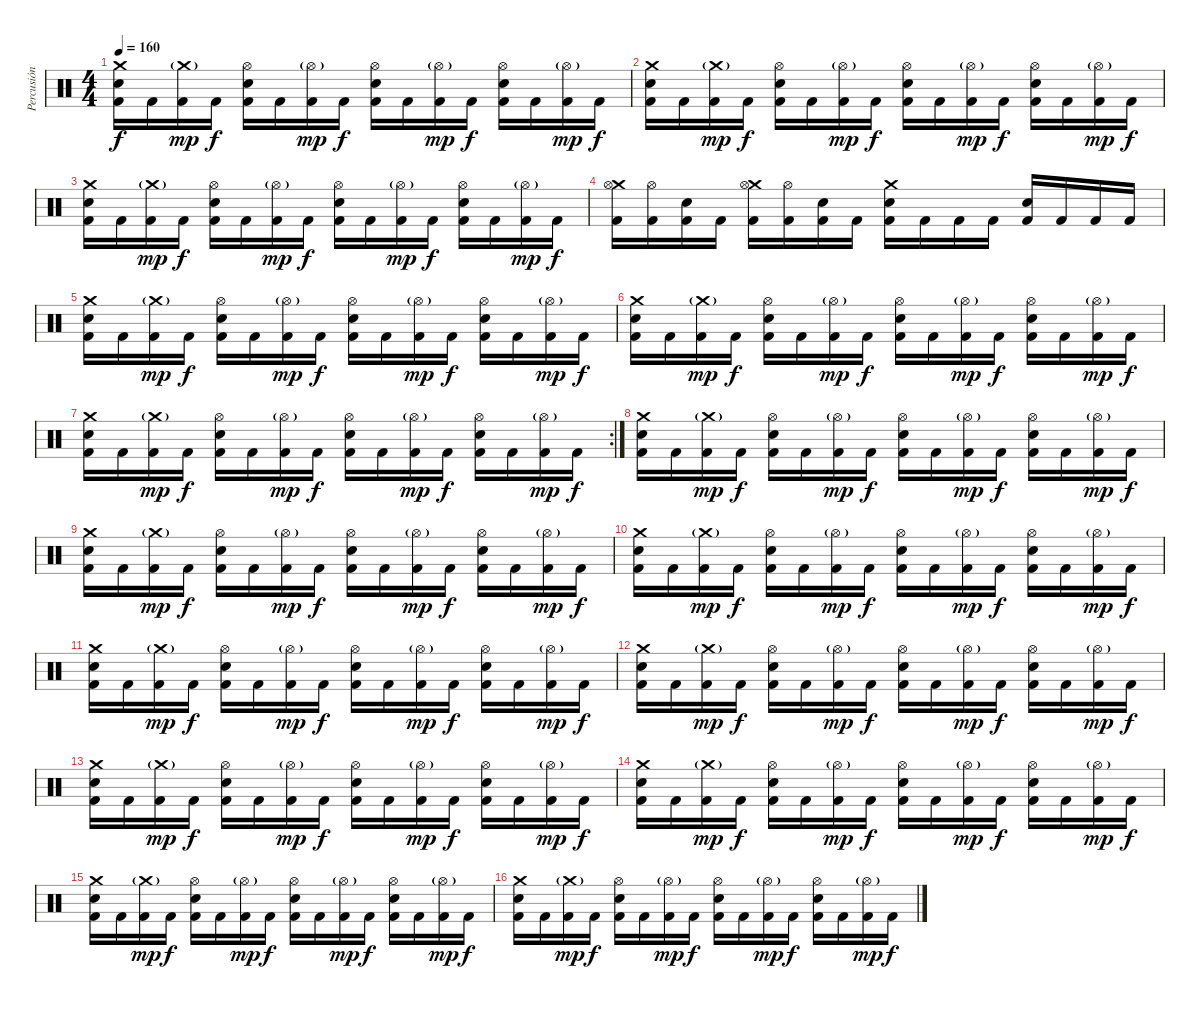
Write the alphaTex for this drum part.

\track ("Percusión" "Percusión") {instrument percussion}
\staff {score}
\articulation defaults
\ts (4 4)
\tempo 160
\clef neutral
\ks c
("Crash medium (hit)" "Electric Snare (hit)" "Kick (hit) 2").16{dy f} "Kick (hit) 2".16 ("Crash medium (hit)"{g} "Kick (hit) 2").16{dy mp} "Kick (hit) 2".16{dy f} ("Hi-Hat (open)" "Electric Snare (hit)" "Kick (hit) 2").16 "Kick (hit) 2".16 ("Hi-Hat (open)"{g} "Kick (hit) 2").16{dy mp} "Kick (hit) 2".16{dy f} ("Hi-Hat (open)" "Electric Snare (hit)" "Kick (hit) 2").16 "Kick (hit) 2".16 ("Hi-Hat (open)"{g} "Kick (hit) 2").16{dy mp} "Kick (hit) 2".16{dy f} ("Hi-Hat (open)" "Electric Snare (hit)" "Kick (hit) 2").16 "Kick (hit) 2".16 ("Hi-Hat (open)"{g} "Kick (hit) 2").16{dy mp} "Kick (hit) 2".16{dy f} |
("Crash medium (hit)" "Electric Snare (hit)" "Kick (hit) 2").16 "Kick (hit) 2".16 ("Crash medium (hit)"{g} "Kick (hit) 2").16{dy mp} "Kick (hit) 2".16{dy f} ("Hi-Hat (open)" "Electric Snare (hit)" "Kick (hit) 2").16 "Kick (hit) 2".16 ("Hi-Hat (open)"{g} "Kick (hit) 2").16{dy mp} "Kick (hit) 2".16{dy f} ("Hi-Hat (open)" "Electric Snare (hit)" "Kick (hit) 2").16 "Kick (hit) 2".16 ("Hi-Hat (open)"{g} "Kick (hit) 2").16{dy mp} "Kick (hit) 2".16{dy f} ("Hi-Hat (open)" "Electric Snare (hit)" "Kick (hit) 2").16 "Kick (hit) 2".16 ("Hi-Hat (open)"{g} "Kick (hit) 2").16{dy mp} "Kick (hit) 2".16{dy f} |
("Crash medium (hit)" "Electric Snare (hit)" "Kick (hit) 2").16 "Kick (hit) 2".16 ("Crash medium (hit)"{g} "Kick (hit) 2").16{dy mp} "Kick (hit) 2".16{dy f} ("Hi-Hat (open)" "Electric Snare (hit)" "Kick (hit) 2").16 "Kick (hit) 2".16 ("Hi-Hat (open)"{g} "Kick (hit) 2").16{dy mp} "Kick (hit) 2".16{dy f} ("Hi-Hat (open)" "Electric Snare (hit)" "Kick (hit) 2").16 "Kick (hit) 2".16 ("Hi-Hat (open)"{g} "Kick (hit) 2").16{dy mp} "Kick (hit) 2".16{dy f} ("Hi-Hat (open)" "Electric Snare (hit)" "Kick (hit) 2").16 "Kick (hit) 2".16 ("Hi-Hat (open)"{g} "Kick (hit) 2").16{dy mp} "Kick (hit) 2".16{dy f} |
("Crash medium (hit)" "Hi-Hat (open)" "Kick (hit) 2").16 ("Hi-Hat (open)" "Kick (hit) 2").16 ("Electric Snare (hit)" "Kick (hit) 2").16 "Kick (hit) 2".16 ("Crash medium (hit)" "Hi-Hat (open)" "Kick (hit) 2").16 ("Hi-Hat (open)" "Kick (hit) 2").16 ("Electric Snare (hit)" "Kick (hit) 2").16 "Kick (hit) 2".16 ("Crash medium (hit)" "Electric Snare (hit)" "Kick (hit) 2").16 "Kick (hit) 2".16 "Kick (hit) 2".16 "Kick (hit) 2".16 ("Snare (hit) 2" "Kick (hit) 2").16 "Kick (hit) 2".16 "Kick (hit) 2".16 "Kick (hit) 2".16 |
("Crash medium (hit)" "Electric Snare (hit)" "Kick (hit) 2").16 "Kick (hit) 2".16 ("Crash medium (hit)"{g} "Kick (hit) 2").16{dy mp} "Kick (hit) 2".16{dy f} ("Hi-Hat (open)" "Electric Snare (hit)" "Kick (hit) 2").16 "Kick (hit) 2".16 ("Hi-Hat (open)"{g} "Kick (hit) 2").16{dy mp} "Kick (hit) 2".16{dy f} ("Hi-Hat (open)" "Electric Snare (hit)" "Kick (hit) 2").16 "Kick (hit) 2".16 ("Hi-Hat (open)"{g} "Kick (hit) 2").16{dy mp} "Kick (hit) 2".16{dy f} ("Hi-Hat (open)" "Electric Snare (hit)" "Kick (hit) 2").16 "Kick (hit) 2".16 ("Hi-Hat (open)"{g} "Kick (hit) 2").16{dy mp} "Kick (hit) 2".16{dy f} |
("Crash medium (hit)" "Electric Snare (hit)" "Kick (hit) 2").16 "Kick (hit) 2".16 ("Crash medium (hit)"{g} "Kick (hit) 2").16{dy mp} "Kick (hit) 2".16{dy f} ("Hi-Hat (open)" "Electric Snare (hit)" "Kick (hit) 2").16 "Kick (hit) 2".16 ("Hi-Hat (open)"{g} "Kick (hit) 2").16{dy mp} "Kick (hit) 2".16{dy f} ("Hi-Hat (open)" "Electric Snare (hit)" "Kick (hit) 2").16 "Kick (hit) 2".16 ("Hi-Hat (open)"{g} "Kick (hit) 2").16{dy mp} "Kick (hit) 2".16{dy f} ("Hi-Hat (open)" "Electric Snare (hit)" "Kick (hit) 2").16 "Kick (hit) 2".16 ("Hi-Hat (open)"{g} "Kick (hit) 2").16{dy mp} "Kick (hit) 2".16{dy f} |
\rc 2
("Crash medium (hit)" "Electric Snare (hit)" "Kick (hit) 2").16 "Kick (hit) 2".16 ("Crash medium (hit)"{g} "Kick (hit) 2").16{dy mp} "Kick (hit) 2".16{dy f} ("Hi-Hat (open)" "Electric Snare (hit)" "Kick (hit) 2").16 "Kick (hit) 2".16 ("Hi-Hat (open)"{g} "Kick (hit) 2").16{dy mp} "Kick (hit) 2".16{dy f} ("Hi-Hat (open)" "Electric Snare (hit)" "Kick (hit) 2").16 "Kick (hit) 2".16 ("Hi-Hat (open)"{g} "Kick (hit) 2").16{dy mp} "Kick (hit) 2".16{dy f} ("Hi-Hat (open)" "Electric Snare (hit)" "Kick (hit) 2").16 "Kick (hit) 2".16 ("Hi-Hat (open)"{g} "Kick (hit) 2").16{dy mp} "Kick (hit) 2".16{dy f} |
("Crash medium (hit)" "Electric Snare (hit)" "Kick (hit) 2").16 "Kick (hit) 2".16 ("Crash medium (hit)"{g} "Kick (hit) 2").16{dy mp} "Kick (hit) 2".16{dy f} ("Hi-Hat (open)" "Electric Snare (hit)" "Kick (hit) 2").16 "Kick (hit) 2".16 ("Hi-Hat (open)"{g} "Kick (hit) 2").16{dy mp} "Kick (hit) 2".16{dy f} ("Hi-Hat (open)" "Electric Snare (hit)" "Kick (hit) 2").16 "Kick (hit) 2".16 ("Hi-Hat (open)"{g} "Kick (hit) 2").16{dy mp} "Kick (hit) 2".16{dy f} ("Hi-Hat (open)" "Electric Snare (hit)" "Kick (hit) 2").16 "Kick (hit) 2".16 ("Hi-Hat (open)"{g} "Kick (hit) 2").16{dy mp} "Kick (hit) 2".16{dy f} |
("Crash medium (hit)" "Electric Snare (hit)" "Kick (hit) 2").16 "Kick (hit) 2".16 ("Crash medium (hit)"{g} "Kick (hit) 2").16{dy mp} "Kick (hit) 2".16{dy f} ("Hi-Hat (open)" "Electric Snare (hit)" "Kick (hit) 2").16 "Kick (hit) 2".16 ("Hi-Hat (open)"{g} "Kick (hit) 2").16{dy mp} "Kick (hit) 2".16{dy f} ("Hi-Hat (open)" "Electric Snare (hit)" "Kick (hit) 2").16 "Kick (hit) 2".16 ("Hi-Hat (open)"{g} "Kick (hit) 2").16{dy mp} "Kick (hit) 2".16{dy f} ("Hi-Hat (open)" "Electric Snare (hit)" "Kick (hit) 2").16 "Kick (hit) 2".16 ("Hi-Hat (open)"{g} "Kick (hit) 2").16{dy mp} "Kick (hit) 2".16{dy f} |
("Crash medium (hit)" "Electric Snare (hit)" "Kick (hit) 2").16 "Kick (hit) 2".16 ("Crash medium (hit)"{g} "Kick (hit) 2").16{dy mp} "Kick (hit) 2".16{dy f} ("Hi-Hat (open)" "Electric Snare (hit)" "Kick (hit) 2").16 "Kick (hit) 2".16 ("Hi-Hat (open)"{g} "Kick (hit) 2").16{dy mp} "Kick (hit) 2".16{dy f} ("Hi-Hat (open)" "Electric Snare (hit)" "Kick (hit) 2").16 "Kick (hit) 2".16 ("Hi-Hat (open)"{g} "Kick (hit) 2").16{dy mp} "Kick (hit) 2".16{dy f} ("Hi-Hat (open)" "Electric Snare (hit)" "Kick (hit) 2").16 "Kick (hit) 2".16 ("Hi-Hat (open)"{g} "Kick (hit) 2").16{dy mp} "Kick (hit) 2".16{dy f} |
("Crash medium (hit)" "Electric Snare (hit)" "Kick (hit) 2").16 "Kick (hit) 2".16 ("Crash medium (hit)"{g} "Kick (hit) 2").16{dy mp} "Kick (hit) 2".16{dy f} ("Hi-Hat (open)" "Electric Snare (hit)" "Kick (hit) 2").16 "Kick (hit) 2".16 ("Hi-Hat (open)"{g} "Kick (hit) 2").16{dy mp} "Kick (hit) 2".16{dy f} ("Hi-Hat (open)" "Electric Snare (hit)" "Kick (hit) 2").16 "Kick (hit) 2".16 ("Hi-Hat (open)"{g} "Kick (hit) 2").16{dy mp} "Kick (hit) 2".16{dy f} ("Hi-Hat (open)" "Electric Snare (hit)" "Kick (hit) 2").16 "Kick (hit) 2".16 ("Hi-Hat (open)"{g} "Kick (hit) 2").16{dy mp} "Kick (hit) 2".16{dy f} |
("Crash medium (hit)" "Electric Snare (hit)" "Kick (hit) 2").16 "Kick (hit) 2".16 ("Crash medium (hit)"{g} "Kick (hit) 2").16{dy mp} "Kick (hit) 2".16{dy f} ("Hi-Hat (open)" "Electric Snare (hit)" "Kick (hit) 2").16 "Kick (hit) 2".16 ("Hi-Hat (open)"{g} "Kick (hit) 2").16{dy mp} "Kick (hit) 2".16{dy f} ("Hi-Hat (open)" "Electric Snare (hit)" "Kick (hit) 2").16 "Kick (hit) 2".16 ("Hi-Hat (open)"{g} "Kick (hit) 2").16{dy mp} "Kick (hit) 2".16{dy f} ("Hi-Hat (open)" "Electric Snare (hit)" "Kick (hit) 2").16 "Kick (hit) 2".16 ("Hi-Hat (open)"{g} "Kick (hit) 2").16{dy mp} "Kick (hit) 2".16{dy f} |
("Crash medium (hit)" "Electric Snare (hit)" "Kick (hit) 2").16 "Kick (hit) 2".16 ("Crash medium (hit)"{g} "Kick (hit) 2").16{dy mp} "Kick (hit) 2".16{dy f} ("Hi-Hat (open)" "Electric Snare (hit)" "Kick (hit) 2").16 "Kick (hit) 2".16 ("Hi-Hat (open)"{g} "Kick (hit) 2").16{dy mp} "Kick (hit) 2".16{dy f} ("Hi-Hat (open)" "Electric Snare (hit)" "Kick (hit) 2").16 "Kick (hit) 2".16 ("Hi-Hat (open)"{g} "Kick (hit) 2").16{dy mp} "Kick (hit) 2".16{dy f} ("Hi-Hat (open)" "Electric Snare (hit)" "Kick (hit) 2").16 "Kick (hit) 2".16 ("Hi-Hat (open)"{g} "Kick (hit) 2").16{dy mp} "Kick (hit) 2".16{dy f} |
("Crash medium (hit)" "Electric Snare (hit)" "Kick (hit) 2").16 "Kick (hit) 2".16 ("Crash medium (hit)"{g} "Kick (hit) 2").16{dy mp} "Kick (hit) 2".16{dy f} ("Hi-Hat (open)" "Electric Snare (hit)" "Kick (hit) 2").16 "Kick (hit) 2".16 ("Hi-Hat (open)"{g} "Kick (hit) 2").16{dy mp} "Kick (hit) 2".16{dy f} ("Hi-Hat (open)" "Electric Snare (hit)" "Kick (hit) 2").16 "Kick (hit) 2".16 ("Hi-Hat (open)"{g} "Kick (hit) 2").16{dy mp} "Kick (hit) 2".16{dy f} ("Hi-Hat (open)" "Electric Snare (hit)" "Kick (hit) 2").16 "Kick (hit) 2".16 ("Hi-Hat (open)"{g} "Kick (hit) 2").16{dy mp} "Kick (hit) 2".16{dy f} |
("Crash medium (hit)" "Electric Snare (hit)" "Kick (hit) 2").16 "Kick (hit) 2".16 ("Crash medium (hit)"{g} "Kick (hit) 2").16{dy mp} "Kick (hit) 2".16{dy f} ("Hi-Hat (open)" "Electric Snare (hit)" "Kick (hit) 2").16 "Kick (hit) 2".16 ("Hi-Hat (open)"{g} "Kick (hit) 2").16{dy mp} "Kick (hit) 2".16{dy f} ("Hi-Hat (open)" "Electric Snare (hit)" "Kick (hit) 2").16 "Kick (hit) 2".16 ("Hi-Hat (open)"{g} "Kick (hit) 2").16{dy mp} "Kick (hit) 2".16{dy f} ("Hi-Hat (open)" "Electric Snare (hit)" "Kick (hit) 2").16 "Kick (hit) 2".16 ("Hi-Hat (open)"{g} "Kick (hit) 2").16{dy mp} "Kick (hit) 2".16{dy f} |
("Crash medium (hit)" "Electric Snare (hit)" "Kick (hit) 2").16 "Kick (hit) 2".16 ("Crash medium (hit)"{g} "Kick (hit) 2").16{dy mp} "Kick (hit) 2".16{dy f} ("Hi-Hat (open)" "Electric Snare (hit)" "Kick (hit) 2").16 "Kick (hit) 2".16 ("Hi-Hat (open)"{g} "Kick (hit) 2").16{dy mp} "Kick (hit) 2".16{dy f} ("Hi-Hat (open)" "Electric Snare (hit)" "Kick (hit) 2").16 "Kick (hit) 2".16 ("Hi-Hat (open)"{g} "Kick (hit) 2").16{dy mp} "Kick (hit) 2".16{dy f} ("Hi-Hat (open)" "Electric Snare (hit)" "Kick (hit) 2").16 "Kick (hit) 2".16 ("Hi-Hat (open)"{g} "Kick (hit) 2").16{dy mp} "Kick (hit) 2".16{dy f}
